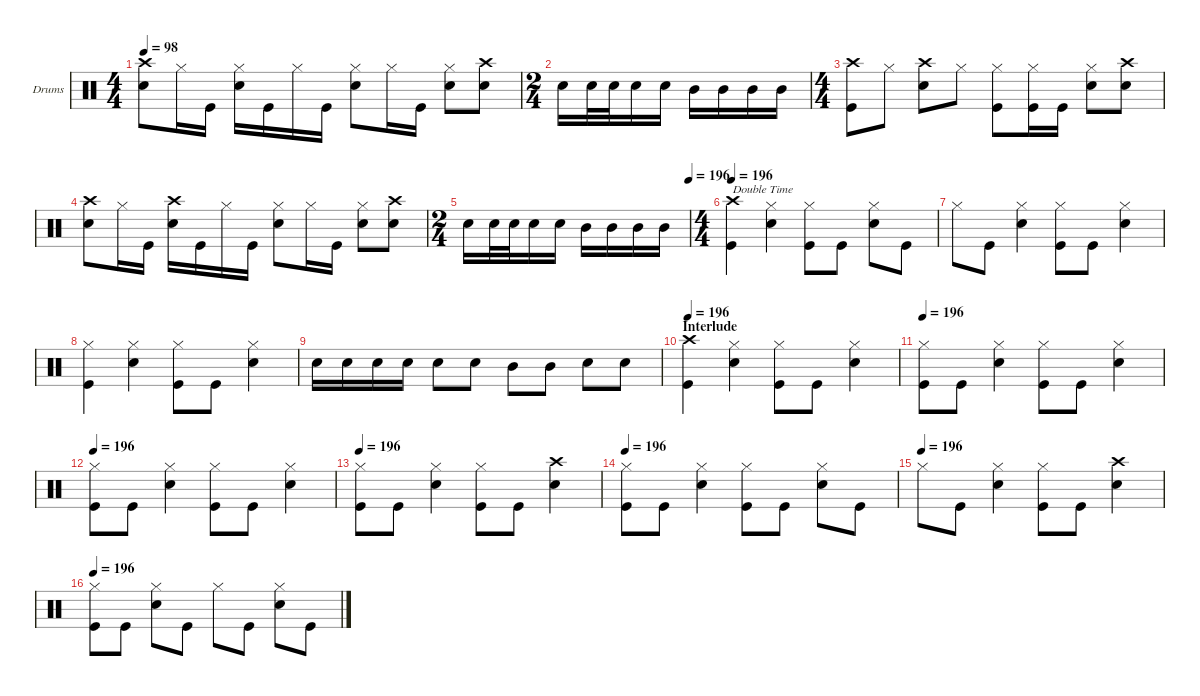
\hideDynamics
\bracketExtendMode groupsimilarinstruments
\firstSystemTrackNameOrientation horizontal
\otherSystemsTrackNameOrientation horizontal
\track ("Drumkit" "Drums") {multiBarRest instrument percussion}
\staff {score}
\articulation defaults
\ts (4 4)
\tempo 98
\clef neutral
\ks c
("Snare (hit) 2" "Crash high (hit)").8{dy f} "Hi-Hat (closed)".16 "Kick (hit)".16 ("Snare (hit) 2" "Hi-Hat (closed)").16 "Kick (hit)".16 "Hi-Hat (closed)".16 "Kick (hit)".16 ("Hi-Hat (closed)" "Snare (hit) 2").8 "Hi-Hat (closed)".16 "Kick (hit)".16 ("Snare (hit) 2" "Hi-Hat (closed)").8 ("Crash high (hit)" "Snare (hit) 2").8 |
\ts (2 4)
"Snare (hit) 2".16 "Snare (hit) 2".32 "Snare (hit) 2".32 "Snare (hit) 2".16 "Snare (hit) 2".16 "Mid Tom (hit)".16 "Mid Tom (hit)".16 "Mid Tom (hit)".16 "Mid Tom (hit)".16 |
\ts (4 4)
("Kick (hit)" "Crash high (hit)").8 "Hi-Hat (closed)".8 ("Crash high (hit)" "Snare (hit) 2").8 "Hi-Hat (closed)".8 ("Kick (hit)" "Hi-Hat (closed)").8 ("Kick (hit)" "Hi-Hat (closed)").16 "Kick (hit)".16 ("Snare (hit) 2" "Hi-Hat (closed)").8 ("Crash high (hit)" "Snare (hit) 2").8 |
("Snare (hit) 2" "Crash high (hit)").8 "Hi-Hat (closed)".16 "Kick (hit)".16 ("Snare (hit) 2" "Crash high (hit)").16 "Kick (hit)".16 "Hi-Hat (closed)".16 "Kick (hit)".16 ("Snare (hit) 2" "Hi-Hat (closed)").8 "Hi-Hat (closed)".16 "Kick (hit)".16 ("Snare (hit) 2" "Hi-Hat (closed)").8 ("Crash high (hit)" "Snare (hit) 2").8 |
\ts (2 4)
\tempo (196 1)
"Snare (hit) 2".16 "Snare (hit) 2".32 "Snare (hit) 2".32 "Snare (hit) 2".16 "Snare (hit) 2".16 "Mid Tom (hit)".16 "Mid Tom (hit)".16 "Mid Tom (hit)".16 "Mid Tom (hit)".16 |
\ts (4 4)
\tempo 196
("Kick (hit)" "Crash high (hit)").4{txt "Double Time"} ("Hi-Hat (closed)" "Snare (hit) 2").4 ("Kick (hit)" "Hi-Hat (closed)").8 "Kick (hit)".8 ("Snare (hit) 2" "Hi-Hat (closed)").8 "Kick (hit)".8 |
"Hi-Hat (closed)".8 "Kick (hit)".8 ("Snare (hit) 2" "Hi-Hat (closed)").4 ("Kick (hit)" "Hi-Hat (closed)").8 "Kick (hit)".8 ("Snare (hit) 2" "Hi-Hat (closed)").4 |
("Hi-Hat (closed)" "Kick (hit)").4 ("Snare (hit) 2" "Hi-Hat (closed)").4 ("Kick (hit)" "Hi-Hat (closed)").8 "Kick (hit)".8 ("Snare (hit) 2" "Hi-Hat (closed)").4 |
"Snare (hit) 2".16 "Snare (hit) 2".16 "Snare (hit) 2".16 "Snare (hit) 2".16 "Snare (hit) 2".8 "Snare (hit) 2".8 "Mid Tom (hit)".8 "Mid Tom (hit)".8 "Snare (hit) 2".8 "Snare (hit) 2".8 |
\section ("" "Interlude")
\tempo 196
("Kick (hit)" "Crash high (hit)").4 ("Hi-Hat (closed)" "Snare (hit) 2").4 ("Kick (hit)" "Hi-Hat (closed)").8 "Kick (hit)".8 ("Snare (hit) 2" "Hi-Hat (closed)").4 |
\tempo 196
("Hi-Hat (closed)" "Kick (hit)").8 "Kick (hit)".8 ("Snare (hit) 2" "Hi-Hat (closed)").4 ("Hi-Hat (closed)" "Kick (hit)").8 "Kick (hit)".8 ("Snare (hit) 2" "Hi-Hat (closed)").4 |
\tempo 196
("Hi-Hat (closed)" "Kick (hit)").8 "Kick (hit)".8 ("Snare (hit) 2" "Hi-Hat (closed)").4 ("Hi-Hat (closed)" "Kick (hit)").8 "Kick (hit)".8 ("Snare (hit) 2" "Hi-Hat (closed)").4 |
\tempo 196
("Hi-Hat (closed)" "Kick (hit)").8 "Kick (hit)".8 ("Snare (hit) 2" "Hi-Hat (closed)").4 ("Hi-Hat (closed)" "Kick (hit)").8 "Kick (hit)".8 ("Crash high (hit)" "Snare (hit) 2").4 |
\tempo 196
("Kick (hit)" "Hi-Hat (closed)").8 "Kick (hit)".8 ("Snare (hit) 2" "Hi-Hat (closed)").4 ("Kick (hit)" "Hi-Hat (closed)").8 "Kick (hit)".8 ("Snare (hit) 2" "Hi-Hat (closed)").8 "Kick (hit)".8 |
\tempo (196)
"Hi-Hat (closed)".8 "Kick (hit)".8 ("Snare (hit) 2" "Hi-Hat (closed)").4 ("Hi-Hat (closed)" "Kick (hit)").8 "Kick (hit)".8 ("Crash high (hit)" "Snare (hit) 2").4 |
\tempo 196
("Kick (hit)" "Hi-Hat (closed)").8 "Kick (hit)".8 ("Snare (hit) 2" "Hi-Hat (closed)").8 "Kick (hit)".8 "Hi-Hat (closed)".8 "Kick (hit)".8 ("Snare (hit) 2" "Hi-Hat (closed)").8 "Kick (hit)".8
